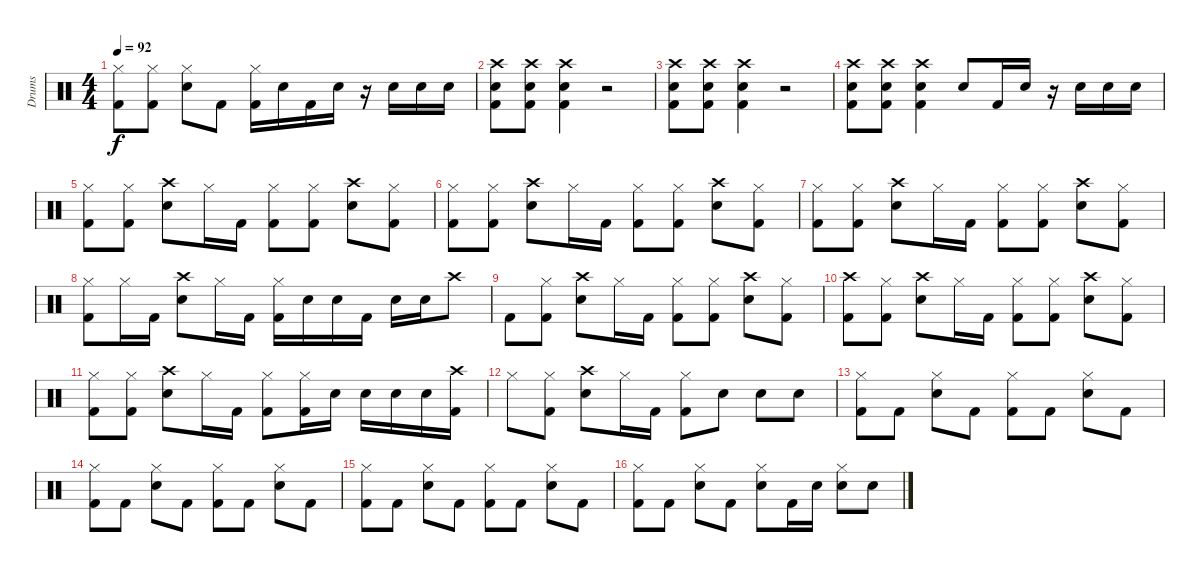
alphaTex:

\track ("Drums" "Drums") {instrument percussion}
\staff {score}
\articulation defaults
\ts (4 4)
\tempo 92
\clef neutral
\ks c
("Hi-Hat (closed)" "Kick (hit) 2").8{dy f} ("Hi-Hat (closed)" "Kick (hit) 2").8 ("Hi-Hat (closed)" "Electric Snare (hit)").8 "Kick (hit) 2".8 ("Hi-Hat (closed)" "Kick (hit) 2").16 "Electric Snare (hit)".16 "Kick (hit) 2".16 "Electric Snare (hit)".16 r.16 "Electric Snare (hit)".16 "Electric Snare (hit)".16 "Electric Snare (hit)".16 |
("Crash high (hit)" "Electric Snare (hit)" "Kick (hit) 2").8 ("Crash high (hit)" "Electric Snare (hit)" "Kick (hit) 2").8 ("Crash high (hit)" "Electric Snare (hit)" "Kick (hit) 2").4 r.2 |
("Crash high (hit)" "Electric Snare (hit)" "Kick (hit) 2").8 ("Crash high (hit)" "Electric Snare (hit)" "Kick (hit) 2").8 ("Crash high (hit)" "Electric Snare (hit)" "Kick (hit) 2").4 r.2 |
("Crash high (hit)" "Electric Snare (hit)" "Kick (hit) 2").8 ("Crash high (hit)" "Electric Snare (hit)" "Kick (hit) 2").8 ("Crash high (hit)" "Electric Snare (hit)" "Kick (hit) 2").4 "Electric Snare (hit)".8 "Kick (hit) 2".16 "Electric Snare (hit)".16 r.16 "Electric Snare (hit)".16 "Electric Snare (hit)".16 "Electric Snare (hit)".16 |
("Hi-Hat (closed)" "Kick (hit) 2").8 ("Hi-Hat (closed)" "Kick (hit) 2").8 ("Crash high (hit)" "Electric Snare (hit)").8 "Hi-Hat (closed)".16 "Kick (hit) 2".16 ("Hi-Hat (closed)" "Kick (hit) 2").8 ("Hi-Hat (closed)" "Kick (hit) 2").8 ("Crash high (hit)" "Electric Snare (hit)").8 ("Hi-Hat (closed)" "Kick (hit) 2").8 |
("Hi-Hat (closed)" "Kick (hit) 2").8 ("Hi-Hat (closed)" "Kick (hit) 2").8 ("Crash high (hit)" "Electric Snare (hit)").8 "Hi-Hat (closed)".16 "Kick (hit) 2".16 ("Hi-Hat (closed)" "Kick (hit) 2").8 ("Hi-Hat (closed)" "Kick (hit) 2").8 ("Crash high (hit)" "Electric Snare (hit)").8 ("Hi-Hat (closed)" "Kick (hit) 2").8 |
("Hi-Hat (closed)" "Kick (hit) 2").8 ("Hi-Hat (closed)" "Kick (hit) 2").8 ("Crash high (hit)" "Electric Snare (hit)").8 "Hi-Hat (closed)".16 "Kick (hit) 2".16 ("Hi-Hat (closed)" "Kick (hit) 2").8 ("Hi-Hat (closed)" "Kick (hit) 2").8 ("Crash high (hit)" "Electric Snare (hit)").8 ("Hi-Hat (closed)" "Kick (hit) 2").8 |
("Hi-Hat (closed)" "Kick (hit) 2").8 "Hi-Hat (closed)".16 "Kick (hit) 2".16 ("Crash high (hit)" "Electric Snare (hit)").8 "Hi-Hat (closed)".16 "Kick (hit) 2".16 ("Hi-Hat (closed)" "Kick (hit) 2").16 "Electric Snare (hit)".16 "Electric Snare (hit)".16 "Kick (hit) 2".16 "Electric Snare (hit)".16 "Electric Snare (hit)".16 "Crash high (hit)".8 |
"Kick (hit) 2".8 ("Hi-Hat (closed)" "Kick (hit) 2").8 ("Crash high (hit)" "Electric Snare (hit)").8 "Hi-Hat (closed)".16 "Kick (hit) 2".16 ("Hi-Hat (closed)" "Kick (hit) 2").8 ("Hi-Hat (closed)" "Kick (hit) 2").8 ("Crash high (hit)" "Electric Snare (hit)").8 ("Hi-Hat (closed)" "Kick (hit) 2").8 |
("Crash high (hit)" "Kick (hit) 2").8 ("Hi-Hat (closed)" "Kick (hit) 2").8 ("Crash high (hit)" "Electric Snare (hit)").8 "Hi-Hat (closed)".16 "Kick (hit) 2".16 ("Hi-Hat (closed)" "Kick (hit) 2").8 ("Hi-Hat (closed)" "Kick (hit) 2").8 ("Crash high (hit)" "Electric Snare (hit)").8 ("Hi-Hat (closed)" "Kick (hit) 2").8 |
("Hi-Hat (closed)" "Kick (hit) 2").8 ("Hi-Hat (closed)" "Kick (hit) 2").8 ("Crash high (hit)" "Electric Snare (hit)").8 "Hi-Hat (closed)".16 "Kick (hit) 2".16 ("Hi-Hat (closed)" "Kick (hit) 2").8 ("Hi-Hat (closed)" "Kick (hit) 2").16 "Electric Snare (hit)".16 "Electric Snare (hit)".16 "Electric Snare (hit)".16 "Electric Snare (hit)".16 ("Crash high (hit)" "Kick (hit) 2").16 |
"Hi-Hat (closed)".8 ("Hi-Hat (closed)" "Kick (hit) 2").8 ("Crash high (hit)" "Electric Snare (hit)").8 "Hi-Hat (closed)".16 "Kick (hit) 2".16 ("Hi-Hat (closed)" "Kick (hit) 2").8 "Electric Snare (hit)".8 "Electric Snare (hit)".8 "Electric Snare (hit)".8 |
("Hi-Hat (closed)" "Kick (hit) 2").8 "Kick (hit) 2".8 ("Hi-Hat (closed)" "Electric Snare (hit)").8 "Kick (hit) 2".8 ("Hi-Hat (closed)" "Kick (hit) 2").8 "Kick (hit) 2".8 ("Hi-Hat (closed)" "Electric Snare (hit)").8 "Kick (hit) 2".8 |
("Hi-Hat (closed)" "Kick (hit) 2").8 "Kick (hit) 2".8 ("Hi-Hat (closed)" "Electric Snare (hit)").8 "Kick (hit) 2".8 ("Hi-Hat (closed)" "Kick (hit) 2").8 "Kick (hit) 2".8 ("Hi-Hat (closed)" "Electric Snare (hit)").8 "Kick (hit) 2".8 |
("Hi-Hat (closed)" "Kick (hit) 2").8 "Kick (hit) 2".8 ("Hi-Hat (closed)" "Electric Snare (hit)").8 "Kick (hit) 2".8 ("Hi-Hat (closed)" "Kick (hit) 2").8 "Kick (hit) 2".8 ("Hi-Hat (closed)" "Electric Snare (hit)").8 "Kick (hit) 2".8 |
("Hi-Hat (closed)" "Kick (hit) 2").8 "Kick (hit) 2".8 ("Hi-Hat (closed)" "Electric Snare (hit)").8 "Kick (hit) 2".8 ("Hi-Hat (closed)" "Electric Snare (hit)").8 "Kick (hit) 2".16 "Electric Snare (hit)".16 ("Hi-Hat (closed)" "Electric Snare (hit)").8 "Electric Snare (hit)".8
